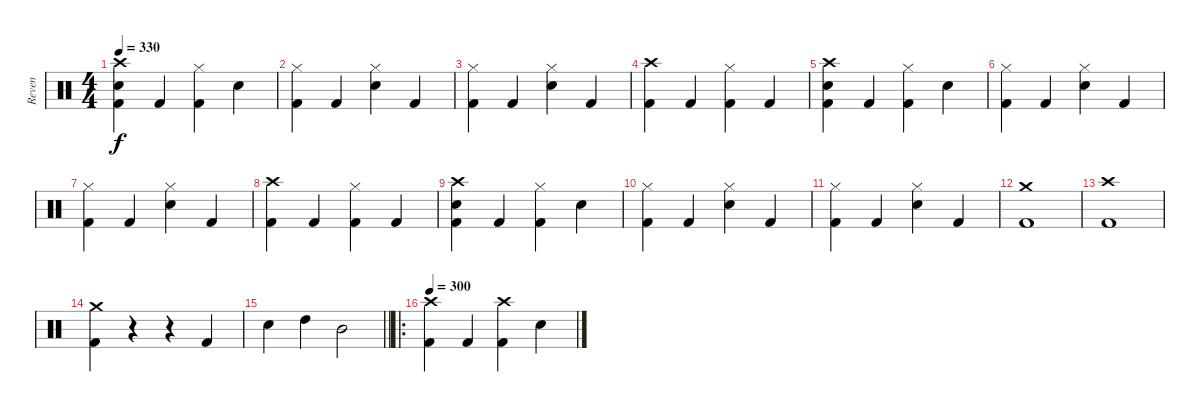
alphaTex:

\track ("Reven" "Reven") {instrument percussion}
\staff {score}
\articulation defaults
\ts (4 4)
\tempo 330
\clef neutral
\ks c
("Crash high (hit)" "Electric Snare (hit)" "Kick (hit) 2").4{dy f} "Kick (hit) 2".4 ("Hi-Hat (closed)" "Kick (hit) 2").4 "Electric Snare (hit)".4 |
("Hi-Hat (closed)" "Kick (hit) 2").4 "Kick (hit) 2".4 ("Hi-Hat (closed)" "Electric Snare (hit)").4 "Kick (hit) 2".4 |
("Hi-Hat (closed)" "Kick (hit) 2").4 "Kick (hit) 2".4 ("Hi-Hat (closed)" "Electric Snare (hit)").4 "Kick (hit) 2".4 |
("Crash high (hit)" "Kick (hit) 2").4 "Kick (hit) 2".4 ("Hi-Hat (closed)" "Kick (hit) 2").4 "Kick (hit) 2".4 |
("Crash high (hit)" "Electric Snare (hit)" "Kick (hit) 2").4 "Kick (hit) 2".4 ("Hi-Hat (closed)" "Kick (hit) 2").4 "Electric Snare (hit)".4 |
("Hi-Hat (closed)" "Kick (hit) 2").4 "Kick (hit) 2".4 ("Hi-Hat (closed)" "Electric Snare (hit)").4 "Kick (hit) 2".4 |
("Hi-Hat (closed)" "Kick (hit) 2").4 "Kick (hit) 2".4 ("Hi-Hat (closed)" "Electric Snare (hit)").4 "Kick (hit) 2".4 |
("Crash high (hit)" "Kick (hit) 2").4 "Kick (hit) 2".4 ("Hi-Hat (closed)" "Kick (hit) 2").4 "Kick (hit) 2".4 |
("Crash high (hit)" "Electric Snare (hit)" "Kick (hit) 2").4 "Kick (hit) 2".4 ("Hi-Hat (closed)" "Kick (hit) 2").4 "Electric Snare (hit)".4 |
("Hi-Hat (closed)" "Kick (hit) 2").4 "Kick (hit) 2".4 ("Hi-Hat (closed)" "Electric Snare (hit)").4 "Kick (hit) 2".4 |
("Hi-Hat (closed)" "Kick (hit) 2").4 "Kick (hit) 2".4 ("Hi-Hat (closed)" "Electric Snare (hit)").4 "Kick (hit) 2".4 |
("Crash medium (hit)" "Kick (hit) 2").1 |
("Crash high (hit)" "Kick (hit) 2").1 |
("Crash medium (hit)" "Kick (hit) 2").4 r.4 r.4 "Kick (hit) 2".4 |
\barLineRight lightlight "Electric Snare (hit)".4 "High Tom (hit)".4 "Mid Tom (hit)".2
|
\ro
\tempo 300
("Crash high (hit)" "Kick (hit) 2").4 "Kick (hit) 2".4 ("Crash high (hit)" "Kick (hit) 2").4 "Electric Snare (hit)".4
